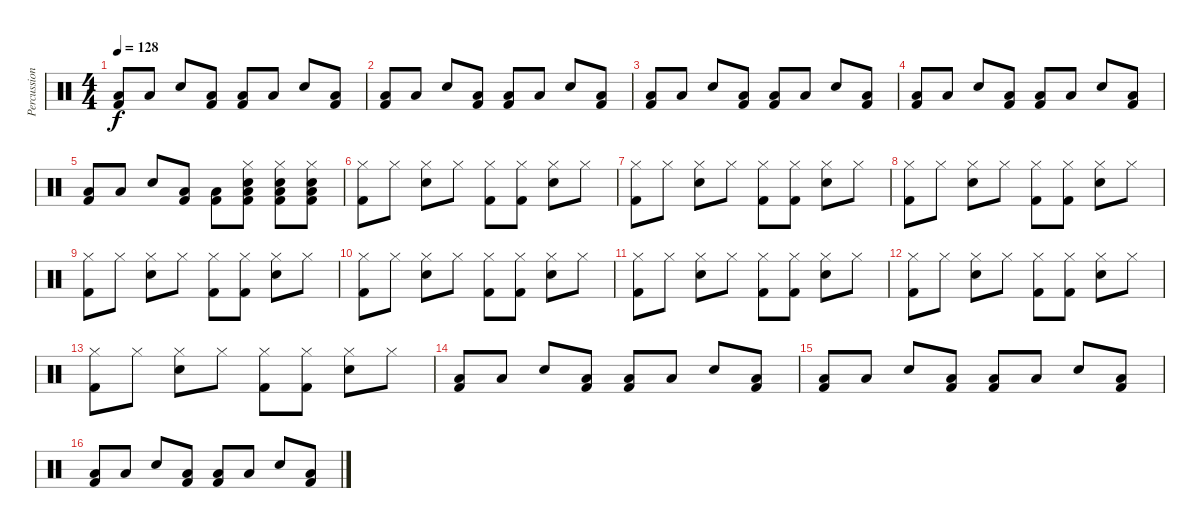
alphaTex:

\track ("Percussion" "Percussion") {instrument percussion}
\staff {score}
\articulation defaults
\ts (4 4)
\tempo 128
\clef neutral
\ks c
("Low Floor Tom (hit)" "Kick (hit) 2").8{dy f} "Low Floor Tom (hit)".8 "Snare (hit) 2".8 ("Low Floor Tom (hit)" "Kick (hit) 2").8 ("Low Floor Tom (hit)" "Kick (hit) 2").8 "Low Floor Tom (hit)".8 "Snare (hit) 2".8 ("Low Floor Tom (hit)" "Kick (hit) 2").8 |
("Low Floor Tom (hit)" "Kick (hit) 2").8 "Low Floor Tom (hit)".8 "Snare (hit) 2".8 ("Low Floor Tom (hit)" "Kick (hit) 2").8 ("Low Floor Tom (hit)" "Kick (hit) 2").8 "Low Floor Tom (hit)".8 "Snare (hit) 2".8 ("Low Floor Tom (hit)" "Kick (hit) 2").8 |
("Low Floor Tom (hit)" "Kick (hit) 2").8 "Low Floor Tom (hit)".8 "Snare (hit) 2".8 ("Low Floor Tom (hit)" "Kick (hit) 2").8 ("Low Floor Tom (hit)" "Kick (hit) 2").8 "Low Floor Tom (hit)".8 "Snare (hit) 2".8 ("Low Floor Tom (hit)" "Kick (hit) 2").8 |
("Low Floor Tom (hit)" "Kick (hit) 2").8 "Low Floor Tom (hit)".8 "Snare (hit) 2".8 ("Low Floor Tom (hit)" "Kick (hit) 2").8 ("Low Floor Tom (hit)" "Kick (hit) 2").8 "Low Floor Tom (hit)".8 "Snare (hit) 2".8 ("Low Floor Tom (hit)" "Kick (hit) 2").8 |
("Low Floor Tom (hit)" "Kick (hit) 2").8 "Low Floor Tom (hit)".8 "Snare (hit) 2".8 ("Low Floor Tom (hit)" "Kick (hit) 2").8 ("Low Floor Tom (hit)" "Kick (hit) 2").8 ("Hi-Hat (closed)" "Snare (hit) 2" "Low Floor Tom (hit)" "Kick (hit) 2").8 ("Hi-Hat (closed)" "Snare (hit) 2" "Low Floor Tom (hit)" "Kick (hit) 2").8 ("Hi-Hat (closed)" "Snare (hit) 2" "Low Floor Tom (hit)" "Kick (hit) 2").8 |
("Hi-Hat (closed)" "Kick (hit) 2").8 "Hi-Hat (closed)".8 ("Hi-Hat (closed)" "Snare (hit) 2").8 "Hi-Hat (closed)".8 ("Hi-Hat (closed)" "Kick (hit) 2").8 ("Hi-Hat (closed)" "Kick (hit) 2").8 ("Hi-Hat (closed)" "Snare (hit) 2").8 "Hi-Hat (closed)".8 |
("Hi-Hat (closed)" "Kick (hit) 2").8 "Hi-Hat (closed)".8 ("Hi-Hat (closed)" "Snare (hit) 2").8 "Hi-Hat (closed)".8 ("Hi-Hat (closed)" "Kick (hit) 2").8 ("Hi-Hat (closed)" "Kick (hit) 2").8 ("Hi-Hat (closed)" "Snare (hit) 2").8 "Hi-Hat (closed)".8 |
("Hi-Hat (closed)" "Kick (hit) 2").8 "Hi-Hat (closed)".8 ("Hi-Hat (closed)" "Snare (hit) 2").8 "Hi-Hat (closed)".8 ("Hi-Hat (closed)" "Kick (hit) 2").8 ("Hi-Hat (closed)" "Kick (hit) 2").8 ("Hi-Hat (closed)" "Snare (hit) 2").8 "Hi-Hat (closed)".8 |
("Hi-Hat (closed)" "Kick (hit) 2").8 "Hi-Hat (closed)".8 ("Hi-Hat (closed)" "Snare (hit) 2").8 "Hi-Hat (closed)".8 ("Hi-Hat (closed)" "Kick (hit) 2").8 ("Hi-Hat (closed)" "Kick (hit) 2").8 ("Hi-Hat (closed)" "Snare (hit) 2").8 "Hi-Hat (closed)".8 |
("Hi-Hat (closed)" "Kick (hit) 2").8 "Hi-Hat (closed)".8 ("Hi-Hat (closed)" "Snare (hit) 2").8 "Hi-Hat (closed)".8 ("Hi-Hat (closed)" "Kick (hit) 2").8 ("Hi-Hat (closed)" "Kick (hit) 2").8 ("Hi-Hat (closed)" "Snare (hit) 2").8 "Hi-Hat (closed)".8 |
("Hi-Hat (closed)" "Kick (hit) 2").8 "Hi-Hat (closed)".8 ("Hi-Hat (closed)" "Snare (hit) 2").8 "Hi-Hat (closed)".8 ("Hi-Hat (closed)" "Kick (hit) 2").8 ("Hi-Hat (closed)" "Kick (hit) 2").8 ("Hi-Hat (closed)" "Snare (hit) 2").8 "Hi-Hat (closed)".8 |
("Hi-Hat (closed)" "Kick (hit) 2").8 "Hi-Hat (closed)".8 ("Hi-Hat (closed)" "Snare (hit) 2").8 "Hi-Hat (closed)".8 ("Hi-Hat (closed)" "Kick (hit) 2").8 ("Hi-Hat (closed)" "Kick (hit) 2").8 ("Hi-Hat (closed)" "Snare (hit) 2").8 "Hi-Hat (closed)".8 |
("Hi-Hat (closed)" "Kick (hit) 2").8 "Hi-Hat (closed)".8 ("Hi-Hat (closed)" "Snare (hit) 2").8 "Hi-Hat (closed)".8 ("Hi-Hat (closed)" "Kick (hit) 2").8 ("Hi-Hat (closed)" "Kick (hit) 2").8 ("Hi-Hat (closed)" "Snare (hit) 2").8 "Hi-Hat (closed)".8 |
("Low Floor Tom (hit)" "Kick (hit) 2").8 "Low Floor Tom (hit)".8 "Snare (hit) 2".8 ("Low Floor Tom (hit)" "Kick (hit) 2").8 ("Low Floor Tom (hit)" "Kick (hit) 2").8 "Low Floor Tom (hit)".8 "Snare (hit) 2".8 ("Low Floor Tom (hit)" "Kick (hit) 2").8 |
("Low Floor Tom (hit)" "Kick (hit) 2").8 "Low Floor Tom (hit)".8 "Snare (hit) 2".8 ("Low Floor Tom (hit)" "Kick (hit) 2").8 ("Low Floor Tom (hit)" "Kick (hit) 2").8 "Low Floor Tom (hit)".8 "Snare (hit) 2".8 ("Low Floor Tom (hit)" "Kick (hit) 2").8 |
("Low Floor Tom (hit)" "Kick (hit) 2").8 "Low Floor Tom (hit)".8 "Snare (hit) 2".8 ("Low Floor Tom (hit)" "Kick (hit) 2").8 ("Low Floor Tom (hit)" "Kick (hit) 2").8 "Low Floor Tom (hit)".8 "Snare (hit) 2".8 ("Low Floor Tom (hit)" "Kick (hit) 2").8
